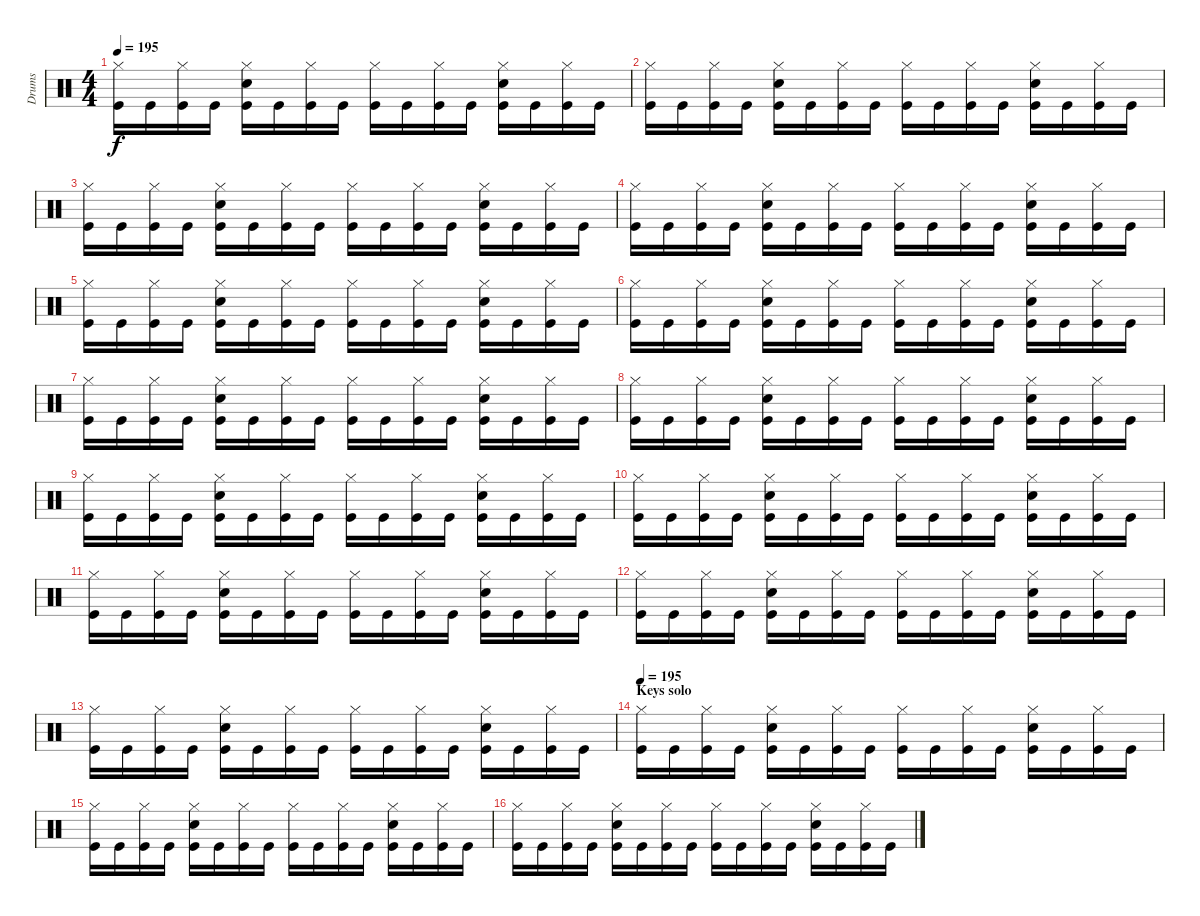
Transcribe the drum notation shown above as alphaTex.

\track ("Drums" "Drums") {instrument percussion}
\staff {score}
\articulation defaults
\ts (4 4)
\tempo 195
\clef neutral
\ks c
("Hi-Hat (closed)" "Kick (hit)").16{dy f} "Kick (hit)".16 ("Hi-Hat (closed)" "Kick (hit)").16 "Kick (hit)".16 ("Hi-Hat (closed)" "Snare (hit) 2" "Kick (hit)").16 "Kick (hit)".16 ("Hi-Hat (closed)" "Kick (hit)").16 "Kick (hit)".16 ("Hi-Hat (closed)" "Kick (hit)").16 "Kick (hit)".16 ("Hi-Hat (closed)" "Kick (hit)").16 "Kick (hit)".16 ("Hi-Hat (closed)" "Snare (hit) 2" "Kick (hit)").16 "Kick (hit)".16 ("Hi-Hat (closed)" "Kick (hit)").16 "Kick (hit)".16 |
("Hi-Hat (closed)" "Kick (hit)").16 "Kick (hit)".16 ("Hi-Hat (closed)" "Kick (hit)").16 "Kick (hit)".16 ("Hi-Hat (closed)" "Snare (hit) 2" "Kick (hit)").16 "Kick (hit)".16 ("Hi-Hat (closed)" "Kick (hit)").16 "Kick (hit)".16 ("Hi-Hat (closed)" "Kick (hit)").16 "Kick (hit)".16 ("Hi-Hat (closed)" "Kick (hit)").16 "Kick (hit)".16 ("Hi-Hat (closed)" "Snare (hit) 2" "Kick (hit)").16 "Kick (hit)".16 ("Hi-Hat (closed)" "Kick (hit)").16 "Kick (hit)".16 |
("Hi-Hat (closed)" "Kick (hit)").16 "Kick (hit)".16 ("Hi-Hat (closed)" "Kick (hit)").16 "Kick (hit)".16 ("Hi-Hat (closed)" "Snare (hit) 2" "Kick (hit)").16 "Kick (hit)".16 ("Hi-Hat (closed)" "Kick (hit)").16 "Kick (hit)".16 ("Hi-Hat (closed)" "Kick (hit)").16 "Kick (hit)".16 ("Hi-Hat (closed)" "Kick (hit)").16 "Kick (hit)".16 ("Hi-Hat (closed)" "Snare (hit) 2" "Kick (hit)").16 "Kick (hit)".16 ("Hi-Hat (closed)" "Kick (hit)").16 "Kick (hit)".16 |
("Hi-Hat (closed)" "Kick (hit)").16 "Kick (hit)".16 ("Hi-Hat (closed)" "Kick (hit)").16 "Kick (hit)".16 ("Hi-Hat (closed)" "Snare (hit) 2" "Kick (hit)").16 "Kick (hit)".16 ("Hi-Hat (closed)" "Kick (hit)").16 "Kick (hit)".16 ("Hi-Hat (closed)" "Kick (hit)").16 "Kick (hit)".16 ("Hi-Hat (closed)" "Kick (hit)").16 "Kick (hit)".16 ("Hi-Hat (closed)" "Snare (hit) 2" "Kick (hit)").16 "Kick (hit)".16 ("Hi-Hat (closed)" "Kick (hit)").16 "Kick (hit)".16 |
("Hi-Hat (closed)" "Kick (hit)").16 "Kick (hit)".16 ("Hi-Hat (closed)" "Kick (hit)").16 "Kick (hit)".16 ("Hi-Hat (closed)" "Snare (hit) 2" "Kick (hit)").16 "Kick (hit)".16 ("Hi-Hat (closed)" "Kick (hit)").16 "Kick (hit)".16 ("Hi-Hat (closed)" "Kick (hit)").16 "Kick (hit)".16 ("Hi-Hat (closed)" "Kick (hit)").16 "Kick (hit)".16 ("Hi-Hat (closed)" "Snare (hit) 2" "Kick (hit)").16 "Kick (hit)".16 ("Hi-Hat (closed)" "Kick (hit)").16 "Kick (hit)".16 |
("Hi-Hat (closed)" "Kick (hit)").16 "Kick (hit)".16 ("Hi-Hat (closed)" "Kick (hit)").16 "Kick (hit)".16 ("Hi-Hat (closed)" "Snare (hit) 2" "Kick (hit)").16 "Kick (hit)".16 ("Hi-Hat (closed)" "Kick (hit)").16 "Kick (hit)".16 ("Hi-Hat (closed)" "Kick (hit)").16 "Kick (hit)".16 ("Hi-Hat (closed)" "Kick (hit)").16 "Kick (hit)".16 ("Hi-Hat (closed)" "Snare (hit) 2" "Kick (hit)").16 "Kick (hit)".16 ("Hi-Hat (closed)" "Kick (hit)").16 "Kick (hit)".16 |
("Hi-Hat (closed)" "Kick (hit)").16 "Kick (hit)".16 ("Hi-Hat (closed)" "Kick (hit)").16 "Kick (hit)".16 ("Hi-Hat (closed)" "Snare (hit) 2" "Kick (hit)").16 "Kick (hit)".16 ("Hi-Hat (closed)" "Kick (hit)").16 "Kick (hit)".16 ("Hi-Hat (closed)" "Kick (hit)").16 "Kick (hit)".16 ("Hi-Hat (closed)" "Kick (hit)").16 "Kick (hit)".16 ("Hi-Hat (closed)" "Snare (hit) 2" "Kick (hit)").16 "Kick (hit)".16 ("Hi-Hat (closed)" "Kick (hit)").16 "Kick (hit)".16 |
("Hi-Hat (closed)" "Kick (hit)").16 "Kick (hit)".16 ("Hi-Hat (closed)" "Kick (hit)").16 "Kick (hit)".16 ("Hi-Hat (closed)" "Snare (hit) 2" "Kick (hit)").16 "Kick (hit)".16 ("Hi-Hat (closed)" "Kick (hit)").16 "Kick (hit)".16 ("Hi-Hat (closed)" "Kick (hit)").16 "Kick (hit)".16 ("Hi-Hat (closed)" "Kick (hit)").16 "Kick (hit)".16 ("Hi-Hat (closed)" "Snare (hit) 2" "Kick (hit)").16 "Kick (hit)".16 ("Hi-Hat (closed)" "Kick (hit)").16 "Kick (hit)".16 |
("Hi-Hat (closed)" "Kick (hit)").16 "Kick (hit)".16 ("Hi-Hat (closed)" "Kick (hit)").16 "Kick (hit)".16 ("Hi-Hat (closed)" "Snare (hit) 2" "Kick (hit)").16 "Kick (hit)".16 ("Hi-Hat (closed)" "Kick (hit)").16 "Kick (hit)".16 ("Hi-Hat (closed)" "Kick (hit)").16 "Kick (hit)".16 ("Hi-Hat (closed)" "Kick (hit)").16 "Kick (hit)".16 ("Hi-Hat (closed)" "Snare (hit) 2" "Kick (hit)").16 "Kick (hit)".16 ("Hi-Hat (closed)" "Kick (hit)").16 "Kick (hit)".16 |
("Hi-Hat (closed)" "Kick (hit)").16 "Kick (hit)".16 ("Hi-Hat (closed)" "Kick (hit)").16 "Kick (hit)".16 ("Hi-Hat (closed)" "Snare (hit) 2" "Kick (hit)").16 "Kick (hit)".16 ("Hi-Hat (closed)" "Kick (hit)").16 "Kick (hit)".16 ("Hi-Hat (closed)" "Kick (hit)").16 "Kick (hit)".16 ("Hi-Hat (closed)" "Kick (hit)").16 "Kick (hit)".16 ("Hi-Hat (closed)" "Snare (hit) 2" "Kick (hit)").16 "Kick (hit)".16 ("Hi-Hat (closed)" "Kick (hit)").16 "Kick (hit)".16 |
("Hi-Hat (closed)" "Kick (hit)").16 "Kick (hit)".16 ("Hi-Hat (closed)" "Kick (hit)").16 "Kick (hit)".16 ("Hi-Hat (closed)" "Snare (hit) 2" "Kick (hit)").16 "Kick (hit)".16 ("Hi-Hat (closed)" "Kick (hit)").16 "Kick (hit)".16 ("Hi-Hat (closed)" "Kick (hit)").16 "Kick (hit)".16 ("Hi-Hat (closed)" "Kick (hit)").16 "Kick (hit)".16 ("Hi-Hat (closed)" "Snare (hit) 2" "Kick (hit)").16 "Kick (hit)".16 ("Hi-Hat (closed)" "Kick (hit)").16 "Kick (hit)".16 |
("Hi-Hat (closed)" "Kick (hit)").16 "Kick (hit)".16 ("Hi-Hat (closed)" "Kick (hit)").16 "Kick (hit)".16 ("Hi-Hat (closed)" "Snare (hit) 2" "Kick (hit)").16 "Kick (hit)".16 ("Hi-Hat (closed)" "Kick (hit)").16 "Kick (hit)".16 ("Hi-Hat (closed)" "Kick (hit)").16 "Kick (hit)".16 ("Hi-Hat (closed)" "Kick (hit)").16 "Kick (hit)".16 ("Hi-Hat (closed)" "Snare (hit) 2" "Kick (hit)").16 "Kick (hit)".16 ("Hi-Hat (closed)" "Kick (hit)").16 "Kick (hit)".16 |
("Hi-Hat (closed)" "Kick (hit)").16 "Kick (hit)".16 ("Hi-Hat (closed)" "Kick (hit)").16 "Kick (hit)".16 ("Hi-Hat (closed)" "Snare (hit) 2" "Kick (hit)").16 "Kick (hit)".16 ("Hi-Hat (closed)" "Kick (hit)").16 "Kick (hit)".16 ("Hi-Hat (closed)" "Kick (hit)").16 "Kick (hit)".16 ("Hi-Hat (closed)" "Kick (hit)").16 "Kick (hit)".16 ("Hi-Hat (closed)" "Snare (hit) 2" "Kick (hit)").16 "Kick (hit)".16 ("Hi-Hat (closed)" "Kick (hit)").16 "Kick (hit)".16 |
\section ("" "Keys solo")
\tempo 195
("Hi-Hat (closed)" "Kick (hit)").16 "Kick (hit)".16 ("Hi-Hat (closed)" "Kick (hit)").16 "Kick (hit)".16 ("Hi-Hat (closed)" "Snare (hit) 2" "Kick (hit)").16 "Kick (hit)".16 ("Hi-Hat (closed)" "Kick (hit)").16 "Kick (hit)".16 ("Hi-Hat (closed)" "Kick (hit)").16 "Kick (hit)".16 ("Hi-Hat (closed)" "Kick (hit)").16 "Kick (hit)".16 ("Hi-Hat (closed)" "Snare (hit) 2" "Kick (hit)").16 "Kick (hit)".16 ("Hi-Hat (closed)" "Kick (hit)").16 "Kick (hit)".16 |
("Hi-Hat (closed)" "Kick (hit)").16 "Kick (hit)".16 ("Hi-Hat (closed)" "Kick (hit)").16 "Kick (hit)".16 ("Hi-Hat (closed)" "Snare (hit) 2" "Kick (hit)").16 "Kick (hit)".16 ("Hi-Hat (closed)" "Kick (hit)").16 "Kick (hit)".16 ("Hi-Hat (closed)" "Kick (hit)").16 "Kick (hit)".16 ("Hi-Hat (closed)" "Kick (hit)").16 "Kick (hit)".16 ("Hi-Hat (closed)" "Snare (hit) 2" "Kick (hit)").16 "Kick (hit)".16 ("Hi-Hat (closed)" "Kick (hit)").16 "Kick (hit)".16 |
("Hi-Hat (closed)" "Kick (hit)").16 "Kick (hit)".16 ("Hi-Hat (closed)" "Kick (hit)").16 "Kick (hit)".16 ("Hi-Hat (closed)" "Snare (hit) 2" "Kick (hit)").16 "Kick (hit)".16 ("Hi-Hat (closed)" "Kick (hit)").16 "Kick (hit)".16 ("Hi-Hat (closed)" "Kick (hit)").16 "Kick (hit)".16 ("Hi-Hat (closed)" "Kick (hit)").16 "Kick (hit)".16 ("Hi-Hat (closed)" "Snare (hit) 2" "Kick (hit)").16 "Kick (hit)".16 ("Hi-Hat (closed)" "Kick (hit)").16 "Kick (hit)".16
